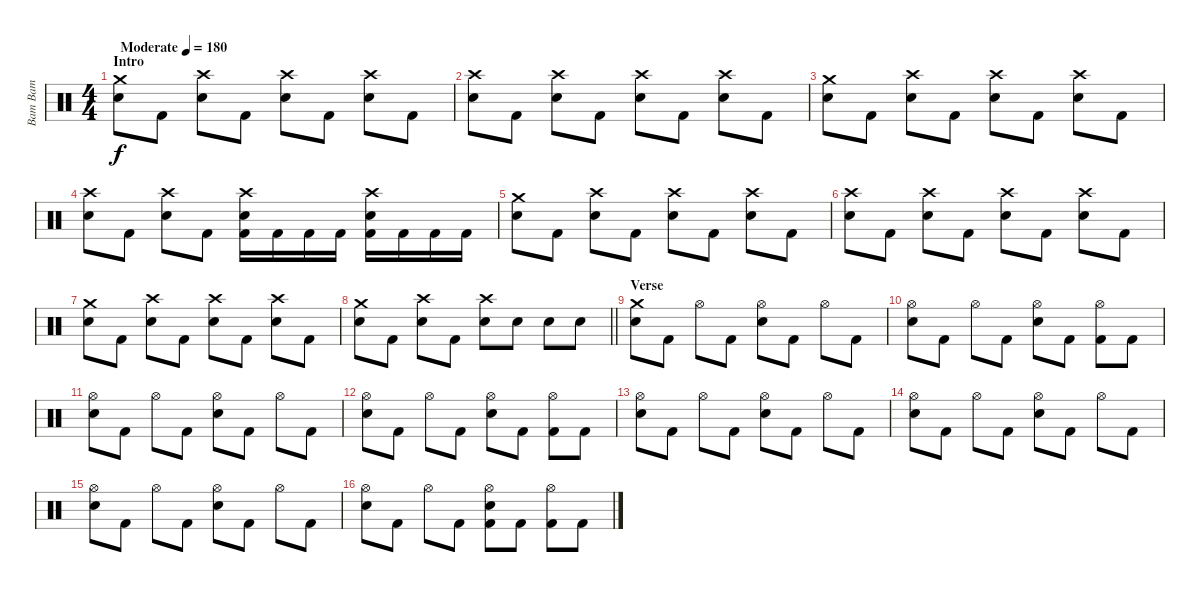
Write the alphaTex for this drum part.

\track ("Bam Bam" "Bam Bam") {instrument percussion}
\staff {score}
\articulation defaults
\ts (4 4)
\section ("" "Intro")
\tempo (180 "Moderate")
\clef neutral
\ks c
("Crash medium (hit)" "Electric Snare (hit)").8{dy f} "Kick (hit) 2".8 ("Crash high (hit)" "Electric Snare (hit)").8 "Kick (hit) 2".8 ("Crash high (hit)" "Electric Snare (hit)").8 "Kick (hit) 2".8 ("Crash high (hit)" "Electric Snare (hit)").8 "Kick (hit) 2".8 |
("Crash high (hit)" "Electric Snare (hit)").8 "Kick (hit) 2".8 ("Crash high (hit)" "Electric Snare (hit)").8 "Kick (hit) 2".8 ("Crash high (hit)" "Electric Snare (hit)").8 "Kick (hit) 2".8 ("Crash high (hit)" "Electric Snare (hit)").8 "Kick (hit) 2".8 |
("Crash medium (hit)" "Electric Snare (hit)").8 "Kick (hit) 2".8 ("Crash high (hit)" "Electric Snare (hit)").8 "Kick (hit) 2".8 ("Crash high (hit)" "Electric Snare (hit)").8 "Kick (hit) 2".8 ("Crash high (hit)" "Electric Snare (hit)").8 "Kick (hit) 2".8 |
("Crash high (hit)" "Electric Snare (hit)").8 "Kick (hit) 2".8 ("Crash high (hit)" "Electric Snare (hit)").8 "Kick (hit) 2".8 ("Crash high (hit)" "Electric Snare (hit)" "Kick (hit) 2").16 "Kick (hit) 2".16 "Kick (hit) 2".16 "Kick (hit) 2".16 ("Crash high (hit)" "Electric Snare (hit)" "Kick (hit) 2").16 "Kick (hit) 2".16 "Kick (hit) 2".16 "Kick (hit) 2".16 |
("Crash medium (hit)" "Electric Snare (hit)").8 "Kick (hit) 2".8 ("Crash high (hit)" "Electric Snare (hit)").8 "Kick (hit) 2".8 ("Crash high (hit)" "Electric Snare (hit)").8 "Kick (hit) 2".8 ("Crash high (hit)" "Electric Snare (hit)").8 "Kick (hit) 2".8 |
("Crash high (hit)" "Electric Snare (hit)").8 "Kick (hit) 2".8 ("Crash high (hit)" "Electric Snare (hit)").8 "Kick (hit) 2".8 ("Crash high (hit)" "Electric Snare (hit)").8 "Kick (hit) 2".8 ("Crash high (hit)" "Electric Snare (hit)").8 "Kick (hit) 2".8 |
("Crash medium (hit)" "Electric Snare (hit)").8 "Kick (hit) 2".8 ("Crash high (hit)" "Electric Snare (hit)").8 "Kick (hit) 2".8 ("Crash high (hit)" "Electric Snare (hit)").8 "Kick (hit) 2".8 ("Crash high (hit)" "Electric Snare (hit)").8 "Kick (hit) 2".8 |
\barLineRight lightlight
("Crash medium (hit)" "Electric Snare (hit)").8 "Kick (hit) 2".8 ("Crash high (hit)" "Electric Snare (hit)").8 "Kick (hit) 2".8 ("Crash high (hit)" "Electric Snare (hit)").8 "Electric Snare (hit)".8 "Electric Snare (hit)".8 "Electric Snare (hit)".8 |
\section ("" "Verse")
("Crash medium (hit)" "Electric Snare (hit)").8 "Kick (hit) 2".8 "Hi-Hat (open)".8 "Kick (hit) 2".8 ("Hi-Hat (open)" "Electric Snare (hit)").8 "Kick (hit) 2".8 "Hi-Hat (open)".8 "Kick (hit) 2".8 |
("Hi-Hat (open)" "Electric Snare (hit)").8 "Kick (hit) 2".8 "Hi-Hat (open)".8 "Kick (hit) 2".8 ("Hi-Hat (open)" "Electric Snare (hit)").8 "Kick (hit) 2".8 ("Hi-Hat (open)" "Kick (hit) 2").8 "Kick (hit) 2".8 |
("Hi-Hat (open)" "Electric Snare (hit)").8 "Kick (hit) 2".8 "Hi-Hat (open)".8 "Kick (hit) 2".8 ("Hi-Hat (open)" "Electric Snare (hit)").8 "Kick (hit) 2".8 "Hi-Hat (open)".8 "Kick (hit) 2".8 |
("Hi-Hat (open)" "Electric Snare (hit)").8 "Kick (hit) 2".8 "Hi-Hat (open)".8 "Kick (hit) 2".8 ("Hi-Hat (open)" "Electric Snare (hit)").8 "Kick (hit) 2".8 ("Hi-Hat (open)" "Kick (hit) 2").8 "Kick (hit) 2".8 |
("Hi-Hat (open)" "Electric Snare (hit)").8 "Kick (hit) 2".8 "Hi-Hat (open)".8 "Kick (hit) 2".8 ("Hi-Hat (open)" "Electric Snare (hit)").8 "Kick (hit) 2".8 "Hi-Hat (open)".8 "Kick (hit) 2".8 |
("Hi-Hat (open)" "Electric Snare (hit)").8 "Kick (hit) 2".8 "Hi-Hat (open)".8 "Kick (hit) 2".8 ("Hi-Hat (open)" "Electric Snare (hit)").8 "Kick (hit) 2".8 "Hi-Hat (open)".8 "Kick (hit) 2".8 |
("Hi-Hat (open)" "Electric Snare (hit)").8 "Kick (hit) 2".8 "Hi-Hat (open)".8 "Kick (hit) 2".8 ("Hi-Hat (open)" "Electric Snare (hit)").8 "Kick (hit) 2".8 "Hi-Hat (open)".8 "Kick (hit) 2".8 |
("Hi-Hat (open)" "Electric Snare (hit)").8 "Kick (hit) 2".8 "Hi-Hat (open)".8 "Kick (hit) 2".8 ("Hi-Hat (open)" "Electric Snare (hit)" "Kick (hit) 2").8 "Kick (hit) 2".8 ("Hi-Hat (open)" "Kick (hit) 2").8 "Kick (hit) 2".8
